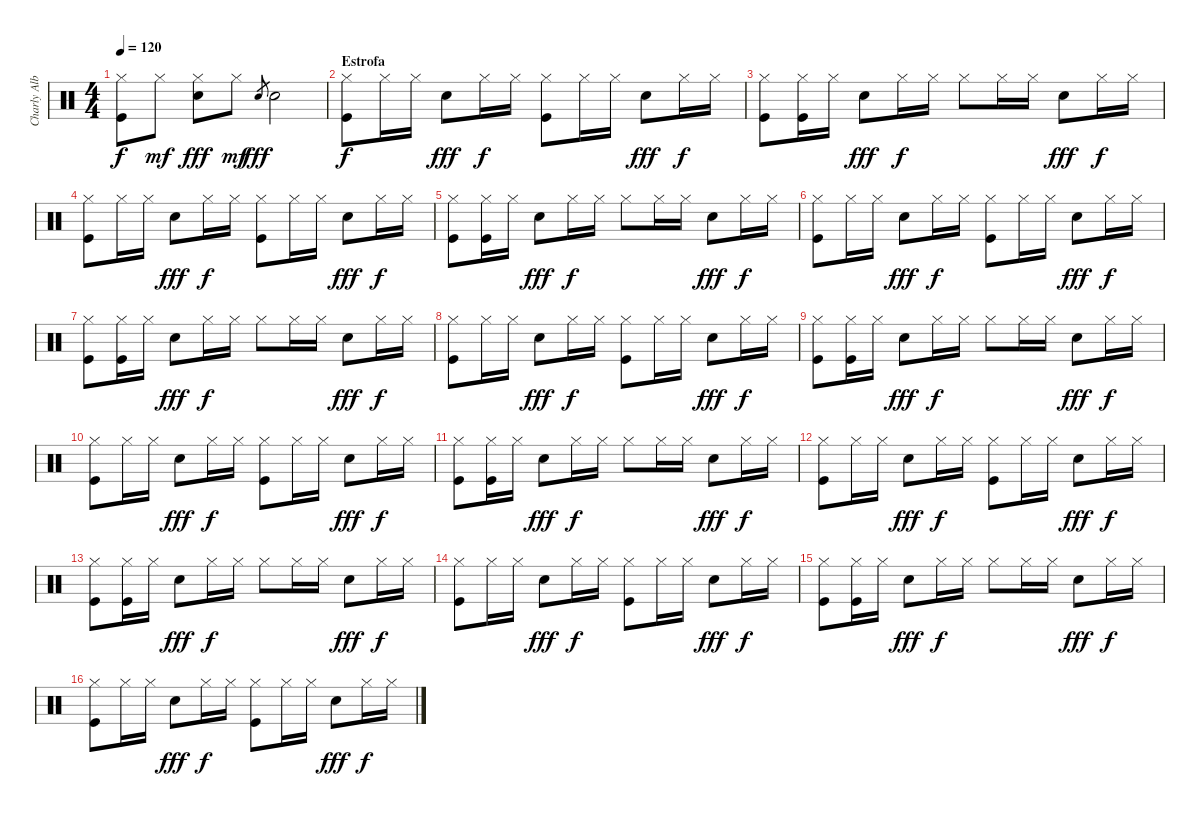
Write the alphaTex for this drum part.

\track ("Charly Alberti" "Charly Alb") {instrument percussion}
\staff {score}
\articulation defaults
\ts (4 4)
\tempo 120
\clef neutral
\ks c
("Kick (hit)" "Hi-Hat (closed)").8{dy f} "Hi-Hat (closed)".8{dy mf} ("Snare (hit) 2" "Hi-Hat (closed)").8{dy fff} "Hi-Hat (closed)".8{dy mf} "Snare (hit) 2".8{gr dy fff} "Snare (hit) 2".2 |
\section ("" "Estrofa")
("Kick (hit)" "Hi-Hat (closed)").8{dy f} "Hi-Hat (closed)".16 "Hi-Hat (closed)".16 "Snare (hit) 2".8{dy fff} "Hi-Hat (closed)".16{dy f} "Hi-Hat (closed)".16 ("Kick (hit)" "Hi-Hat (closed)").8 "Hi-Hat (closed)".16 "Hi-Hat (closed)".16 "Snare (hit) 2".8{dy fff} "Hi-Hat (closed)".16{dy f} "Hi-Hat (closed)".16 |
("Kick (hit)" "Hi-Hat (closed)").8 ("Kick (hit)" "Hi-Hat (closed)").16 "Hi-Hat (closed)".16 "Snare (hit) 2".8{dy fff} "Hi-Hat (closed)".16{dy f} "Hi-Hat (closed)".16 "Hi-Hat (closed)".8 "Hi-Hat (closed)".16 "Hi-Hat (closed)".16 "Snare (hit) 2".8{dy fff} "Hi-Hat (closed)".16{dy f} "Hi-Hat (closed)".16 |
("Kick (hit)" "Hi-Hat (closed)").8 "Hi-Hat (closed)".16 "Hi-Hat (closed)".16 "Snare (hit) 2".8{dy fff} "Hi-Hat (closed)".16{dy f} "Hi-Hat (closed)".16 ("Kick (hit)" "Hi-Hat (closed)").8 "Hi-Hat (closed)".16 "Hi-Hat (closed)".16 "Snare (hit) 2".8{dy fff} "Hi-Hat (closed)".16{dy f} "Hi-Hat (closed)".16 |
("Kick (hit)" "Hi-Hat (closed)").8 ("Kick (hit)" "Hi-Hat (closed)").16 "Hi-Hat (closed)".16 "Snare (hit) 2".8{dy fff} "Hi-Hat (closed)".16{dy f} "Hi-Hat (closed)".16 "Hi-Hat (closed)".8 "Hi-Hat (closed)".16 "Hi-Hat (closed)".16 "Snare (hit) 2".8{dy fff} "Hi-Hat (closed)".16{dy f} "Hi-Hat (closed)".16 |
("Kick (hit)" "Hi-Hat (closed)").8 "Hi-Hat (closed)".16 "Hi-Hat (closed)".16 "Snare (hit) 2".8{dy fff} "Hi-Hat (closed)".16{dy f} "Hi-Hat (closed)".16 ("Kick (hit)" "Hi-Hat (closed)").8 "Hi-Hat (closed)".16 "Hi-Hat (closed)".16 "Snare (hit) 2".8{dy fff} "Hi-Hat (closed)".16{dy f} "Hi-Hat (closed)".16 |
("Kick (hit)" "Hi-Hat (closed)").8 ("Kick (hit)" "Hi-Hat (closed)").16 "Hi-Hat (closed)".16 "Snare (hit) 2".8{dy fff} "Hi-Hat (closed)".16{dy f} "Hi-Hat (closed)".16 "Hi-Hat (closed)".8 "Hi-Hat (closed)".16 "Hi-Hat (closed)".16 "Snare (hit) 2".8{dy fff} "Hi-Hat (closed)".16{dy f} "Hi-Hat (closed)".16 |
("Kick (hit)" "Hi-Hat (closed)").8 "Hi-Hat (closed)".16 "Hi-Hat (closed)".16 "Snare (hit) 2".8{dy fff} "Hi-Hat (closed)".16{dy f} "Hi-Hat (closed)".16 ("Kick (hit)" "Hi-Hat (closed)").8 "Hi-Hat (closed)".16 "Hi-Hat (closed)".16 "Snare (hit) 2".8{dy fff} "Hi-Hat (closed)".16{dy f} "Hi-Hat (closed)".16 |
("Kick (hit)" "Hi-Hat (closed)").8 ("Kick (hit)" "Hi-Hat (closed)").16 "Hi-Hat (closed)".16 "Snare (hit) 2".8{dy fff} "Hi-Hat (closed)".16{dy f} "Hi-Hat (closed)".16 "Hi-Hat (closed)".8 "Hi-Hat (closed)".16 "Hi-Hat (closed)".16 "Snare (hit) 2".8{dy fff} "Hi-Hat (closed)".16{dy f} "Hi-Hat (closed)".16 |
("Kick (hit)" "Hi-Hat (closed)").8 "Hi-Hat (closed)".16 "Hi-Hat (closed)".16 "Snare (hit) 2".8{dy fff} "Hi-Hat (closed)".16{dy f} "Hi-Hat (closed)".16 ("Kick (hit)" "Hi-Hat (closed)").8 "Hi-Hat (closed)".16 "Hi-Hat (closed)".16 "Snare (hit) 2".8{dy fff} "Hi-Hat (closed)".16{dy f} "Hi-Hat (closed)".16 |
("Kick (hit)" "Hi-Hat (closed)").8 ("Kick (hit)" "Hi-Hat (closed)").16 "Hi-Hat (closed)".16 "Snare (hit) 2".8{dy fff} "Hi-Hat (closed)".16{dy f} "Hi-Hat (closed)".16 "Hi-Hat (closed)".8 "Hi-Hat (closed)".16 "Hi-Hat (closed)".16 "Snare (hit) 2".8{dy fff} "Hi-Hat (closed)".16{dy f} "Hi-Hat (closed)".16 |
("Kick (hit)" "Hi-Hat (closed)").8 "Hi-Hat (closed)".16 "Hi-Hat (closed)".16 "Snare (hit) 2".8{dy fff} "Hi-Hat (closed)".16{dy f} "Hi-Hat (closed)".16 ("Kick (hit)" "Hi-Hat (closed)").8 "Hi-Hat (closed)".16 "Hi-Hat (closed)".16 "Snare (hit) 2".8{dy fff} "Hi-Hat (closed)".16{dy f} "Hi-Hat (closed)".16 |
("Kick (hit)" "Hi-Hat (closed)").8 ("Kick (hit)" "Hi-Hat (closed)").16 "Hi-Hat (closed)".16 "Snare (hit) 2".8{dy fff} "Hi-Hat (closed)".16{dy f} "Hi-Hat (closed)".16 "Hi-Hat (closed)".8 "Hi-Hat (closed)".16 "Hi-Hat (closed)".16 "Snare (hit) 2".8{dy fff} "Hi-Hat (closed)".16{dy f} "Hi-Hat (closed)".16 |
("Kick (hit)" "Hi-Hat (closed)").8 "Hi-Hat (closed)".16 "Hi-Hat (closed)".16 "Snare (hit) 2".8{dy fff} "Hi-Hat (closed)".16{dy f} "Hi-Hat (closed)".16 ("Kick (hit)" "Hi-Hat (closed)").8 "Hi-Hat (closed)".16 "Hi-Hat (closed)".16 "Snare (hit) 2".8{dy fff} "Hi-Hat (closed)".16{dy f} "Hi-Hat (closed)".16 |
("Kick (hit)" "Hi-Hat (closed)").8 ("Kick (hit)" "Hi-Hat (closed)").16 "Hi-Hat (closed)".16 "Snare (hit) 2".8{dy fff} "Hi-Hat (closed)".16{dy f} "Hi-Hat (closed)".16 "Hi-Hat (closed)".8 "Hi-Hat (closed)".16 "Hi-Hat (closed)".16 "Snare (hit) 2".8{dy fff} "Hi-Hat (closed)".16{dy f} "Hi-Hat (closed)".16 |
("Kick (hit)" "Hi-Hat (closed)").8 "Hi-Hat (closed)".16 "Hi-Hat (closed)".16 "Snare (hit) 2".8{dy fff} "Hi-Hat (closed)".16{dy f} "Hi-Hat (closed)".16 ("Kick (hit)" "Hi-Hat (closed)").8 "Hi-Hat (closed)".16 "Hi-Hat (closed)".16 "Snare (hit) 2".8{dy fff} "Hi-Hat (closed)".16{dy f} "Hi-Hat (closed)".16
